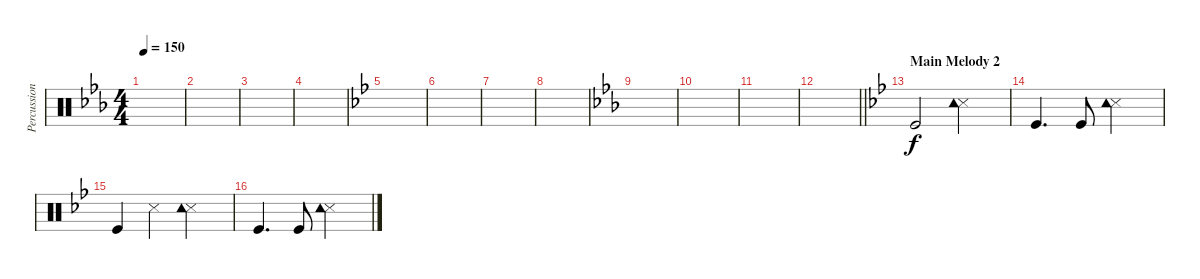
\track ("Percussion" "Percussion") {instrument percussion}
\staff {score}
\articulation defaults
\ts (4 4)
\tempo 150
\clef neutral
\ks cminor
|
|
|
|
\ks gminor
|
|
|
|
\ks cminor
|
|
|
\barLineRight lightlight
|
\section ("" "Main Melody 2")
\ks gminor "Kick (hit)".2
("Snare (side stick) 3" "Tambourine (hit)").2 |
"Kick (hit)".4{d} "Kick (hit)".8 ("Snare (side stick) 3" "Tambourine (hit)").2 |
"Kick (hit)".4 "Snare (side stick) 3".4 ("Snare (side stick) 3" "Tambourine (hit)").2 |
"Kick (hit)".4{d} "Kick (hit)".8 ("Snare (side stick) 3" "Tambourine (hit)").2
